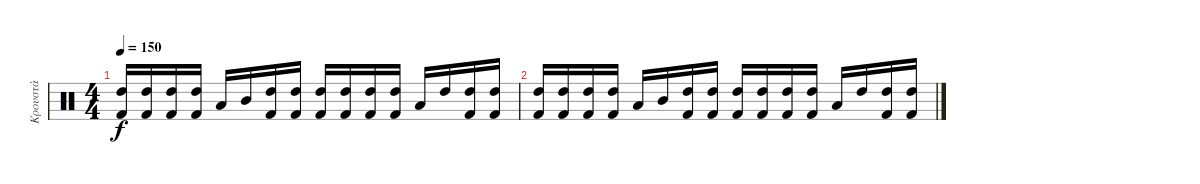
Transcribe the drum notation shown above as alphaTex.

\track ("Κρουστά" "Κρουστά") {instrument percussion}
\staff {score}
\articulation defaults
\ts (4 4)
\tempo 150
\clef neutral
\ks c
("High Tom (hit)" "Kick (hit) 2").16{dy f} ("High Tom (hit)" "Kick (hit) 2").16 ("High Tom (hit)" "Kick (hit) 2").16 ("High Tom (hit)" "Kick (hit) 2").16 "Low Tom (hit)".16 "Mid Tom (hit)".16 ("High Tom (hit)" "Kick (hit) 2").16 ("High Tom (hit)" "Kick (hit) 2").16 ("High Tom (hit)" "Kick (hit) 2").16 ("High Tom (hit)" "Kick (hit) 2").16 ("High Tom (hit)" "Kick (hit) 2").16 ("High Tom (hit)" "Kick (hit) 2").16 "Low Floor Tom (hit)".16 "High Tom (hit)".16 ("High Tom (hit)" "Kick (hit) 2").16 ("High Tom (hit)" "Kick (hit) 2").16 |
("High Tom (hit)" "Kick (hit) 2").16 ("High Tom (hit)" "Kick (hit) 2").16 ("High Tom (hit)" "Kick (hit) 2").16 ("High Tom (hit)" "Kick (hit) 2").16 "Low Tom (hit)".16 "Mid Tom (hit)".16 ("High Tom (hit)" "Kick (hit) 2").16 ("High Tom (hit)" "Kick (hit) 2").16 ("High Tom (hit)" "Kick (hit) 2").16 ("High Tom (hit)" "Kick (hit) 2").16 ("High Tom (hit)" "Kick (hit) 2").16 ("High Tom (hit)" "Kick (hit) 2").16 "Low Floor Tom (hit)".16 "High Tom (hit)".16 ("High Tom (hit)" "Kick (hit) 2").16 ("High Tom (hit)" "Kick (hit) 2").16
